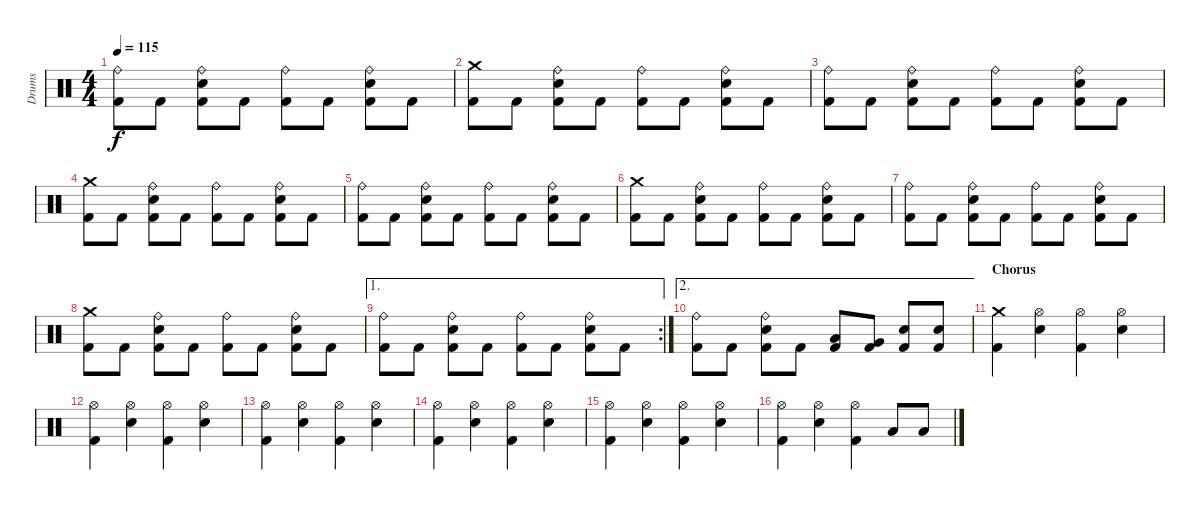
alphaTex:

\track ("Drums" "Drums") {instrument percussion}
\staff {score}
\articulation defaults
\ts (4 4)
\tempo 115
\clef neutral
\ks c
("Ride (bell)" "Kick (hit) 2").8{dy f} "Kick (hit) 2".8 ("Ride (bell)" "Kick (hit) 2" "Electric Snare (hit)").8 "Kick (hit) 2".8 ("Ride (bell)" "Kick (hit) 2").8 "Kick (hit) 2".8 ("Ride (bell)" "Kick (hit) 2" "Electric Snare (hit)").8 "Kick (hit) 2".8 |
("Crash medium (hit)" "Kick (hit) 2").8 "Kick (hit) 2".8 ("Ride (bell)" "Kick (hit) 2" "Electric Snare (hit)").8 "Kick (hit) 2".8 ("Ride (bell)" "Kick (hit) 2").8 "Kick (hit) 2".8 ("Ride (bell)" "Kick (hit) 2" "Electric Snare (hit)").8 "Kick (hit) 2".8 |
("Ride (bell)" "Kick (hit) 2").8 "Kick (hit) 2".8 ("Ride (bell)" "Kick (hit) 2" "Electric Snare (hit)").8 "Kick (hit) 2".8 ("Ride (bell)" "Kick (hit) 2").8 "Kick (hit) 2".8 ("Ride (bell)" "Kick (hit) 2" "Electric Snare (hit)").8 "Kick (hit) 2".8 |
("Crash medium (hit)" "Kick (hit) 2").8 "Kick (hit) 2".8 ("Ride (bell)" "Kick (hit) 2" "Electric Snare (hit)").8 "Kick (hit) 2".8 ("Ride (bell)" "Kick (hit) 2").8 "Kick (hit) 2".8 ("Ride (bell)" "Kick (hit) 2" "Electric Snare (hit)").8 "Kick (hit) 2".8 |
("Ride (bell)" "Kick (hit) 2").8 "Kick (hit) 2".8 ("Ride (bell)" "Kick (hit) 2" "Electric Snare (hit)").8 "Kick (hit) 2".8 ("Ride (bell)" "Kick (hit) 2").8 "Kick (hit) 2".8 ("Ride (bell)" "Kick (hit) 2" "Electric Snare (hit)").8 "Kick (hit) 2".8 |
("Crash medium (hit)" "Kick (hit) 2").8 "Kick (hit) 2".8 ("Ride (bell)" "Kick (hit) 2" "Electric Snare (hit)").8 "Kick (hit) 2".8 ("Ride (bell)" "Kick (hit) 2").8 "Kick (hit) 2".8 ("Ride (bell)" "Kick (hit) 2" "Electric Snare (hit)").8 "Kick (hit) 2".8 |
("Ride (bell)" "Kick (hit) 2").8 "Kick (hit) 2".8 ("Ride (bell)" "Kick (hit) 2" "Electric Snare (hit)").8 "Kick (hit) 2".8 ("Ride (bell)" "Kick (hit) 2").8 "Kick (hit) 2".8 ("Ride (bell)" "Kick (hit) 2" "Electric Snare (hit)").8 "Kick (hit) 2".8 |
("Crash medium (hit)" "Kick (hit) 2").8 "Kick (hit) 2".8 ("Ride (bell)" "Kick (hit) 2" "Electric Snare (hit)").8 "Kick (hit) 2".8 ("Ride (bell)" "Kick (hit) 2").8 "Kick (hit) 2".8 ("Ride (bell)" "Kick (hit) 2" "Electric Snare (hit)").8 "Kick (hit) 2".8 |
\ae 1
\rc 2
("Ride (bell)" "Kick (hit) 2").8 "Kick (hit) 2".8 ("Ride (bell)" "Kick (hit) 2" "Electric Snare (hit)").8 "Kick (hit) 2".8 ("Ride (bell)" "Kick (hit) 2").8 "Kick (hit) 2".8 ("Ride (bell)" "Kick (hit) 2" "Electric Snare (hit)").8 "Kick (hit) 2".8 |
\ae 2
("Ride (bell)" "Kick (hit) 2").8 "Kick (hit) 2".8 ("Ride (bell)" "Kick (hit) 2" "Electric Snare (hit)").8 "Kick (hit) 2".8 ("Kick (hit) 2" "Low Floor Tom (hit)").8 ("Kick (hit) 2" "Very Low Tom (hit)").8 ("Kick (hit) 2" "Electric Snare (hit)").8 ("Kick (hit) 2" "Electric Snare (hit)").8 |
\section ("" "Chorus")
("Crash medium (hit)" "Kick (hit) 2").4 ("Hi-Hat (open)" "Electric Snare (hit)").4 ("Hi-Hat (open)" "Kick (hit) 2").4 ("Hi-Hat (open)" "Electric Snare (hit)").4 |
("Hi-Hat (open)" "Kick (hit) 2").4 ("Hi-Hat (open)" "Electric Snare (hit)").4 ("Hi-Hat (open)" "Kick (hit) 2").4 ("Hi-Hat (open)" "Electric Snare (hit)").4 |
("Hi-Hat (open)" "Kick (hit) 2").4 ("Hi-Hat (open)" "Electric Snare (hit)").4 ("Hi-Hat (open)" "Kick (hit) 2").4 ("Hi-Hat (open)" "Electric Snare (hit)").4 |
("Hi-Hat (open)" "Kick (hit) 2").4 ("Hi-Hat (open)" "Electric Snare (hit)").4 ("Hi-Hat (open)" "Kick (hit) 2").4 ("Hi-Hat (open)" "Electric Snare (hit)").4 |
("Hi-Hat (open)" "Kick (hit) 2").4 ("Hi-Hat (open)" "Electric Snare (hit)").4 ("Hi-Hat (open)" "Kick (hit) 2").4 ("Hi-Hat (open)" "Electric Snare (hit)").4 |
("Hi-Hat (open)" "Kick (hit) 2").4 ("Hi-Hat (open)" "Electric Snare (hit)").4 ("Hi-Hat (open)" "Kick (hit) 2").4 "Low Floor Tom (hit)".8 "Low Floor Tom (hit)".8
